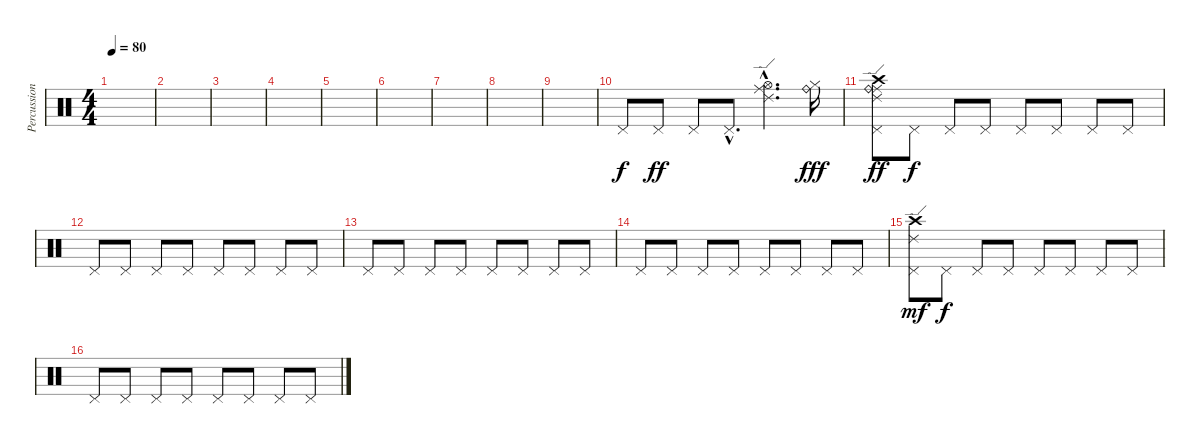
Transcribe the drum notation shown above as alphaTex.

\track ("Percussion" "Percussion") {instrument percussion}
\staff {score}
\articulation defaults
\ts (4 4)
\tempo 80
\clef neutral
\ks c
|
|
|
|
|
|
|
|
|
"Pedal Hi-Hat (hit)".8 "Pedal Hi-Hat (hit)".8{dy ff} "Pedal Hi-Hat (hit)".8 "Pedal Hi-Hat (hit)"{hac}.8{d} ("Ride (edge) 2"{hac} "Ride (middle)"{hac} "Hi-Hat (open)"{hac}).4{d} ("Ride (bell)" "Hi-Hat (closed)").16{dy fff} |
("Ride (edge) 2" "Ride (middle)" "Ride (bell)" "Crash high (hit)" "Pedal Hi-Hat (hit)").8{dy ff} "Pedal Hi-Hat (hit)".8{dy f} "Pedal Hi-Hat (hit)".8 "Pedal Hi-Hat (hit)".8 "Pedal Hi-Hat (hit)".8 "Pedal Hi-Hat (hit)".8 "Pedal Hi-Hat (hit)".8 "Pedal Hi-Hat (hit)".8 |
"Pedal Hi-Hat (hit)".8 "Pedal Hi-Hat (hit)".8 "Pedal Hi-Hat (hit)".8 "Pedal Hi-Hat (hit)".8 "Pedal Hi-Hat (hit)".8 "Pedal Hi-Hat (hit)".8 "Pedal Hi-Hat (hit)".8 "Pedal Hi-Hat (hit)".8 |
"Pedal Hi-Hat (hit)".8 "Pedal Hi-Hat (hit)".8 "Pedal Hi-Hat (hit)".8 "Pedal Hi-Hat (hit)".8 "Pedal Hi-Hat (hit)".8 "Pedal Hi-Hat (hit)".8 "Pedal Hi-Hat (hit)".8 "Pedal Hi-Hat (hit)".8 |
"Pedal Hi-Hat (hit)".8 "Pedal Hi-Hat (hit)".8 "Pedal Hi-Hat (hit)".8 "Pedal Hi-Hat (hit)".8 "Pedal Hi-Hat (hit)".8 "Pedal Hi-Hat (hit)".8 "Pedal Hi-Hat (hit)".8 "Pedal Hi-Hat (hit)".8 |
("Ride (edge) 2" "Crash high (hit)" "Pedal Hi-Hat (hit)").8{dy mf} "Pedal Hi-Hat (hit)".8{dy f} "Pedal Hi-Hat (hit)".8 "Pedal Hi-Hat (hit)".8 "Pedal Hi-Hat (hit)".8 "Pedal Hi-Hat (hit)".8 "Pedal Hi-Hat (hit)".8 "Pedal Hi-Hat (hit)".8 |
"Pedal Hi-Hat (hit)".8 "Pedal Hi-Hat (hit)".8 "Pedal Hi-Hat (hit)".8 "Pedal Hi-Hat (hit)".8 "Pedal Hi-Hat (hit)".8 "Pedal Hi-Hat (hit)".8 "Pedal Hi-Hat (hit)".8 "Pedal Hi-Hat (hit)".8
